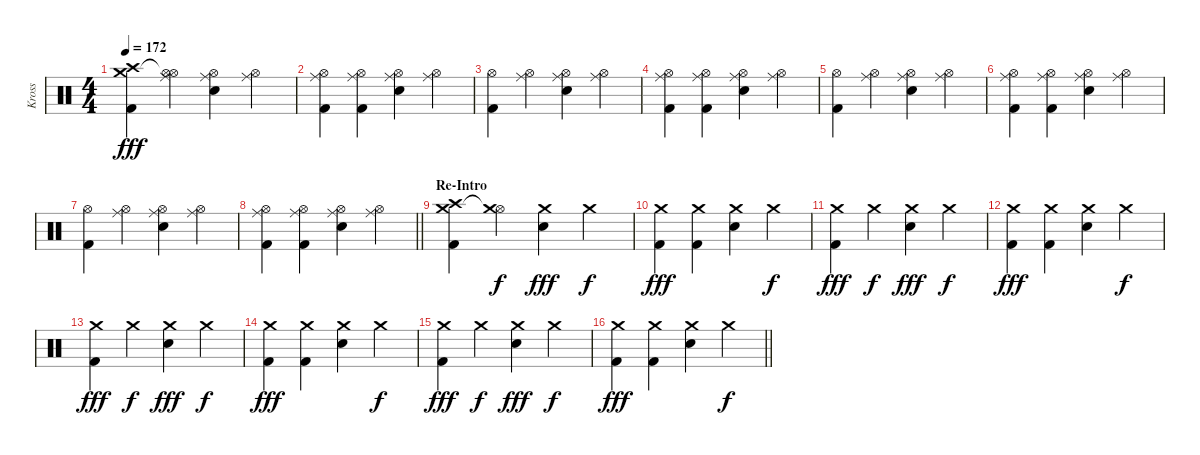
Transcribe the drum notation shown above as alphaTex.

\track ("Kross" "Kross") {instrument percussion}
\staff {score}
\articulation defaults
\ts (4 4)
\tempo 172
\clef neutral
\ks c
("Crash medium (hit)" "Crash high (hit)" "Kick (hit) 2").4{dy fff} ("Hi-Hat (open)"{t} "Hi-Hat (open)" "Ride (middle)").4 ("Hi-Hat (open)" "Ride (middle)" "Snare (hit) 2").4 ("Hi-Hat (open)" "Ride (middle)").4 |
("Hi-Hat (open)" "Ride (middle)" "Kick (hit) 2").4 ("Hi-Hat (open)" "Ride (middle)" "Kick (hit) 2").4 ("Hi-Hat (open)" "Ride (middle)" "Snare (hit) 2").4 ("Hi-Hat (open)" "Ride (middle)").4 |
("Hi-Hat (open)" "Kick (hit) 2").4 ("Hi-Hat (open)" "Ride (middle)").4 ("Hi-Hat (open)" "Ride (middle)" "Snare (hit) 2").4 ("Hi-Hat (open)" "Ride (middle)").4 |
("Hi-Hat (open)" "Ride (middle)" "Kick (hit) 2").4 ("Hi-Hat (open)" "Ride (middle)" "Kick (hit) 2").4 ("Hi-Hat (open)" "Ride (middle)" "Snare (hit) 2").4 ("Hi-Hat (open)" "Ride (middle)").4 |
("Hi-Hat (open)" "Kick (hit) 2").4 ("Hi-Hat (open)" "Ride (middle)").4 ("Hi-Hat (open)" "Ride (middle)" "Snare (hit) 2").4 ("Hi-Hat (open)" "Ride (middle)").4 |
("Hi-Hat (open)" "Ride (middle)" "Kick (hit) 2").4 ("Hi-Hat (open)" "Ride (middle)" "Kick (hit) 2").4 ("Hi-Hat (open)" "Ride (middle)" "Snare (hit) 2").4 ("Hi-Hat (open)" "Ride (middle)").4 |
("Hi-Hat (open)" "Kick (hit) 2").4 ("Hi-Hat (open)" "Ride (middle)").4 ("Hi-Hat (open)" "Ride (middle)" "Snare (hit) 2").4 ("Hi-Hat (open)" "Ride (middle)").4 |
\barLineRight lightlight
("Hi-Hat (open)" "Ride (middle)" "Kick (hit) 2").4 ("Hi-Hat (open)" "Ride (middle)" "Kick (hit) 2").4 ("Hi-Hat (open)" "Ride (middle)" "Snare (hit) 2").4 ("Hi-Hat (open)" "Ride (middle)").4 |
\section ("" "Re-Intro")
("Crash medium (hit)" "Crash high (hit)" "Kick (hit) 2").4{volume 15} ("Hi-Hat (open)"{t} "Crash medium (hit)").4{dy f} ("Crash medium (hit)" "Snare (hit) 2").4{dy fff} "Crash medium (hit)".4{dy f} |
("Crash medium (hit)" "Kick (hit) 2").4{dy fff} ("Crash medium (hit)" "Kick (hit) 2").4 ("Crash medium (hit)" "Snare (hit) 2").4 "Crash medium (hit)".4{dy f} |
("Crash medium (hit)" "Kick (hit) 2").4{dy fff} "Crash medium (hit)".4{dy f} ("Crash medium (hit)" "Snare (hit) 2").4{dy fff} "Crash medium (hit)".4{dy f} |
("Crash medium (hit)" "Kick (hit) 2").4{dy fff} ("Crash medium (hit)" "Kick (hit) 2").4 ("Crash medium (hit)" "Snare (hit) 2").4 "Crash medium (hit)".4{dy f} |
("Crash medium (hit)" "Kick (hit) 2").4{dy fff} "Crash medium (hit)".4{dy f} ("Crash medium (hit)" "Snare (hit) 2").4{dy fff} "Crash medium (hit)".4{dy f} |
("Crash medium (hit)" "Kick (hit) 2").4{dy fff} ("Crash medium (hit)" "Kick (hit) 2").4 ("Crash medium (hit)" "Snare (hit) 2").4 "Crash medium (hit)".4{dy f} |
("Crash medium (hit)" "Kick (hit) 2").4{dy fff} "Crash medium (hit)".4{dy f} ("Crash medium (hit)" "Snare (hit) 2").4{dy fff} "Crash medium (hit)".4{dy f} |
\barLineRight lightlight
("Crash medium (hit)" "Kick (hit) 2").4{dy fff} ("Crash medium (hit)" "Kick (hit) 2").4 ("Crash medium (hit)" "Snare (hit) 2").4 "Crash medium (hit)".4{dy f}
